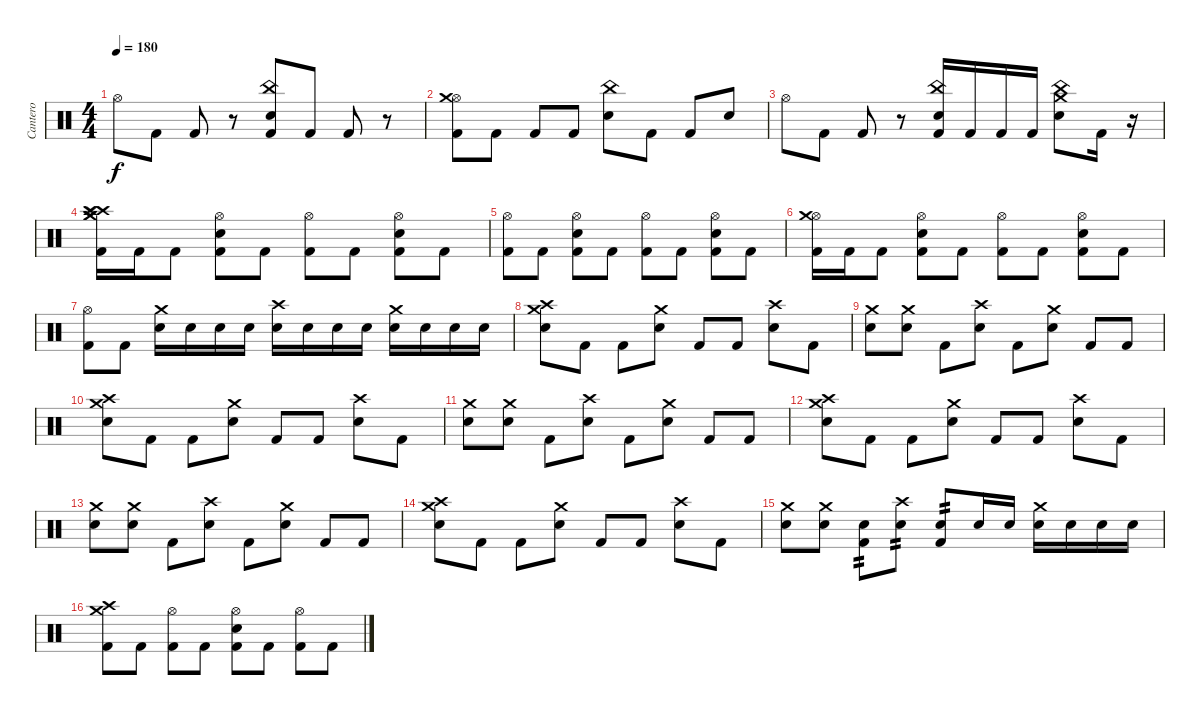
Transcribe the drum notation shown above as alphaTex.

\track ("Cantero" "Cantero") {instrument percussion}
\staff {score}
\articulation defaults
\ts (4 4)
\tempo 180
\clef neutral
\ks c "Hi-Hat (open)".8{dy f} "Kick (hit) 2".8 "Kick (hit) 2".8
r.8 ("Kick (hit) 2" "China (hit)" "Electric Snare (hit)").8 "Kick (hit) 2".8 "Kick (hit) 2".8 r.8 |
("Kick (hit) 2" "Hi-Hat (open)" "Crash medium (hit)").8 "Kick (hit) 2".8 "Kick (hit) 2".8 "Kick (hit) 2".8 ("China (hit)" "Electric Snare (hit)").8 "Kick (hit) 2".8 "Kick (hit) 2".8 "Electric Snare (hit)".8 |
"Hi-Hat (open)".8 "Kick (hit) 2".8 "Kick (hit) 2".8 r.8 ("Kick (hit) 2" "China (hit)" "Electric Snare (hit)").16 "Kick (hit) 2".16 "Kick (hit) 2".16 "Kick (hit) 2".16 ("Electric Snare (hit)" "China (hit)" "Crash medium (hit)").8 "Kick (hit) 2".16 r.16 |
("Kick (hit) 2" "Crash medium (hit)" "Crash high (hit)" "Splash (hit)" "Crash high (hit)" "Crash medium (hit)").16 "Kick (hit) 2".16 "Kick (hit) 2".8 ("Electric Snare (hit)" "Hi-Hat (open)" "Kick (hit) 2").8 "Kick (hit) 2".8 ("Kick (hit) 2" "Hi-Hat (open)").8 "Kick (hit) 2".8 ("Electric Snare (hit)" "Hi-Hat (open)" "Kick (hit) 2").8 "Kick (hit) 2".8 |
("Kick (hit) 2" "Hi-Hat (open)").8 "Kick (hit) 2".8 ("Electric Snare (hit)" "Hi-Hat (open)" "Kick (hit) 2").8 "Kick (hit) 2".8 ("Kick (hit) 2" "Hi-Hat (open)").8 "Kick (hit) 2".8 ("Electric Snare (hit)" "Hi-Hat (open)" "Kick (hit) 2").8 "Kick (hit) 2".8 |
("Kick (hit) 2" "Hi-Hat (open)" "Crash medium (hit)").16 "Kick (hit) 2".16 "Kick (hit) 2".8 ("Electric Snare (hit)" "Hi-Hat (open)" "Kick (hit) 2").8 "Kick (hit) 2".8 ("Kick (hit) 2" "Hi-Hat (open)").8 "Kick (hit) 2".8 ("Electric Snare (hit)" "Hi-Hat (open)" "Kick (hit) 2").8 "Kick (hit) 2".8 |
("Kick (hit) 2" "Hi-Hat (open)").8 "Kick (hit) 2".8 ("Electric Snare (hit)" "Crash medium (hit)").16 "Electric Snare (hit)".16 "Electric Snare (hit)".16 "Electric Snare (hit)".16 ("Electric Snare (hit)" "Crash high (hit)").16 "Electric Snare (hit)".16 "Electric Snare (hit)".16 "Electric Snare (hit)".16 ("Electric Snare (hit)" "Crash medium (hit)").16 "Electric Snare (hit)".16 "Electric Snare (hit)".16 "Electric Snare (hit)".16 |
("Electric Snare (hit)" "Crash high (hit)" "Crash medium (hit)").8 "Kick (hit) 2".8 "Kick (hit) 2".8 ("Electric Snare (hit)" "Crash medium (hit)").8 "Kick (hit) 2".8 "Kick (hit) 2".8 ("Electric Snare (hit)" "Crash high (hit)").8 "Kick (hit) 2".8 |
("Electric Snare (hit)" "Crash medium (hit)").8 ("Electric Snare (hit)" "Crash medium (hit)").8 "Kick (hit) 2".8 ("Electric Snare (hit)" "Crash high (hit)").8 "Kick (hit) 2".8 ("Electric Snare (hit)" "Crash medium (hit)").8 "Kick (hit) 2".8 "Kick (hit) 2".8 |
("Electric Snare (hit)" "Crash high (hit)" "Crash medium (hit)").8 "Kick (hit) 2".8 "Kick (hit) 2".8 ("Electric Snare (hit)" "Crash medium (hit)").8 "Kick (hit) 2".8 "Kick (hit) 2".8 ("Electric Snare (hit)" "Crash high (hit)").8 "Kick (hit) 2".8 |
("Electric Snare (hit)" "Crash medium (hit)").8 ("Electric Snare (hit)" "Crash medium (hit)").8 "Kick (hit) 2".8 ("Electric Snare (hit)" "Crash high (hit)").8 "Kick (hit) 2".8 ("Electric Snare (hit)" "Crash medium (hit)").8 "Kick (hit) 2".8 "Kick (hit) 2".8 |
("Electric Snare (hit)" "Crash high (hit)" "Crash medium (hit)").8 "Kick (hit) 2".8 "Kick (hit) 2".8 ("Electric Snare (hit)" "Crash medium (hit)").8 "Kick (hit) 2".8 "Kick (hit) 2".8 ("Electric Snare (hit)" "Crash high (hit)").8 "Kick (hit) 2".8 |
("Electric Snare (hit)" "Crash medium (hit)").8 ("Electric Snare (hit)" "Crash medium (hit)").8 "Kick (hit) 2".8 ("Electric Snare (hit)" "Crash high (hit)").8 "Kick (hit) 2".8 ("Electric Snare (hit)" "Crash medium (hit)").8 "Kick (hit) 2".8 "Kick (hit) 2".8 |
("Electric Snare (hit)" "Crash high (hit)" "Crash medium (hit)").8 "Kick (hit) 2".8 "Kick (hit) 2".8 ("Electric Snare (hit)" "Crash medium (hit)").8 "Kick (hit) 2".8 "Kick (hit) 2".8 ("Electric Snare (hit)" "Crash high (hit)").8 "Kick (hit) 2".8 |
("Electric Snare (hit)" "Crash medium (hit)").8 ("Electric Snare (hit)" "Crash medium (hit)").8 ("Kick (hit) 2" "Electric Snare (hit)").8{tp 2} ("Electric Snare (hit)" "Crash high (hit)").8{tp 2} ("Kick (hit) 2" "Electric Snare (hit)").8{tp 2} "Electric Snare (hit)".16 "Electric Snare (hit)".16 ("Electric Snare (hit)" "Crash medium (hit)").16 "Electric Snare (hit)".16 "Electric Snare (hit)".16 "Electric Snare (hit)".16 |
("Kick (hit) 2" "Crash high (hit)" "Crash medium (hit)").8 "Kick (hit) 2".8 ("Kick (hit) 2" "Hi-Hat (open)").8 "Kick (hit) 2".8 ("Kick (hit) 2" "Electric Snare (hit)" "Hi-Hat (open)").8 "Kick (hit) 2".8 ("Kick (hit) 2" "Hi-Hat (open)").8 "Kick (hit) 2".8
